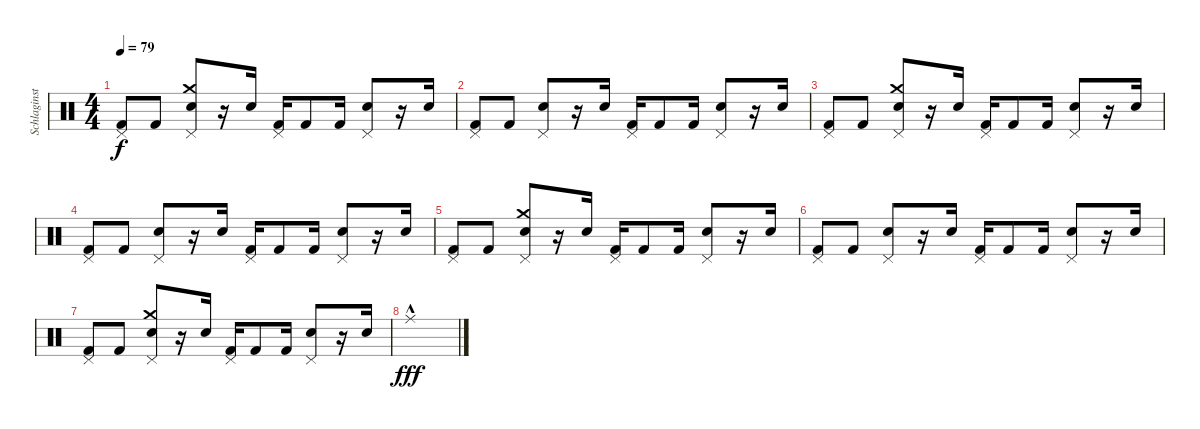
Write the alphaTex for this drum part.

\track ("Schlaginstrumente - Auswahl" "Schlaginst") {instrument percussion}
\staff {score}
\articulation defaults
\ts (4 4)
\tempo 79
\clef neutral
\ks c
("Pedal Hi-Hat (hit)" "Kick (hit) 2").8{dy f} "Kick (hit) 2".8 ("Pedal Hi-Hat (hit)" "Crash medium (hit)" "Snare (hit) 2").8 r.16 "Snare (hit) 2".16 ("Pedal Hi-Hat (hit)" "Kick (hit) 2").16 "Kick (hit) 2".8 "Kick (hit) 2".16 ("Pedal Hi-Hat (hit)" "Snare (hit) 2").8 r.16 "Snare (hit) 2".16 |
("Pedal Hi-Hat (hit)" "Kick (hit) 2").8 "Kick (hit) 2".8 ("Pedal Hi-Hat (hit)" "Snare (hit) 2").8 r.16 "Snare (hit) 2".16 ("Pedal Hi-Hat (hit)" "Kick (hit) 2").16 "Kick (hit) 2".8 "Kick (hit) 2".16 ("Pedal Hi-Hat (hit)" "Snare (hit) 2").8 r.16 "Snare (hit) 2".16 |
("Pedal Hi-Hat (hit)" "Kick (hit) 2").8 "Kick (hit) 2".8 ("Pedal Hi-Hat (hit)" "Crash medium (hit)" "Snare (hit) 2").8 r.16 "Snare (hit) 2".16 ("Pedal Hi-Hat (hit)" "Kick (hit) 2").16 "Kick (hit) 2".8 "Kick (hit) 2".16 ("Pedal Hi-Hat (hit)" "Snare (hit) 2").8 r.16 "Snare (hit) 2".16 |
("Pedal Hi-Hat (hit)" "Kick (hit) 2").8 "Kick (hit) 2".8 ("Pedal Hi-Hat (hit)" "Snare (hit) 2").8 r.16 "Snare (hit) 2".16 ("Pedal Hi-Hat (hit)" "Kick (hit) 2").16 "Kick (hit) 2".8 "Kick (hit) 2".16 ("Pedal Hi-Hat (hit)" "Snare (hit) 2").8 r.16 "Snare (hit) 2".16 |
("Pedal Hi-Hat (hit)" "Kick (hit) 2").8 "Kick (hit) 2".8 ("Pedal Hi-Hat (hit)" "Crash medium (hit)" "Snare (hit) 2").8 r.16 "Snare (hit) 2".16 ("Pedal Hi-Hat (hit)" "Kick (hit) 2").16 "Kick (hit) 2".8 "Kick (hit) 2".16 ("Pedal Hi-Hat (hit)" "Snare (hit) 2").8 r.16 "Snare (hit) 2".16 |
("Pedal Hi-Hat (hit)" "Kick (hit) 2").8 "Kick (hit) 2".8 ("Pedal Hi-Hat (hit)" "Snare (hit) 2").8 r.16 "Snare (hit) 2".16 ("Pedal Hi-Hat (hit)" "Kick (hit) 2").16 "Kick (hit) 2".8 "Kick (hit) 2".16 ("Pedal Hi-Hat (hit)" "Snare (hit) 2").8 r.16 "Snare (hit) 2".16 |
("Pedal Hi-Hat (hit)" "Kick (hit) 2").8 "Kick (hit) 2".8 ("Pedal Hi-Hat (hit)" "Crash medium (hit)" "Snare (hit) 2").8 r.16 "Snare (hit) 2".16 ("Pedal Hi-Hat (hit)" "Kick (hit) 2").16 "Kick (hit) 2".8 "Kick (hit) 2".16 ("Pedal Hi-Hat (hit)" "Snare (hit) 2").8 r.16 "Snare (hit) 2".16 |
"Ride (middle)"{hac}.1{dy fff}
